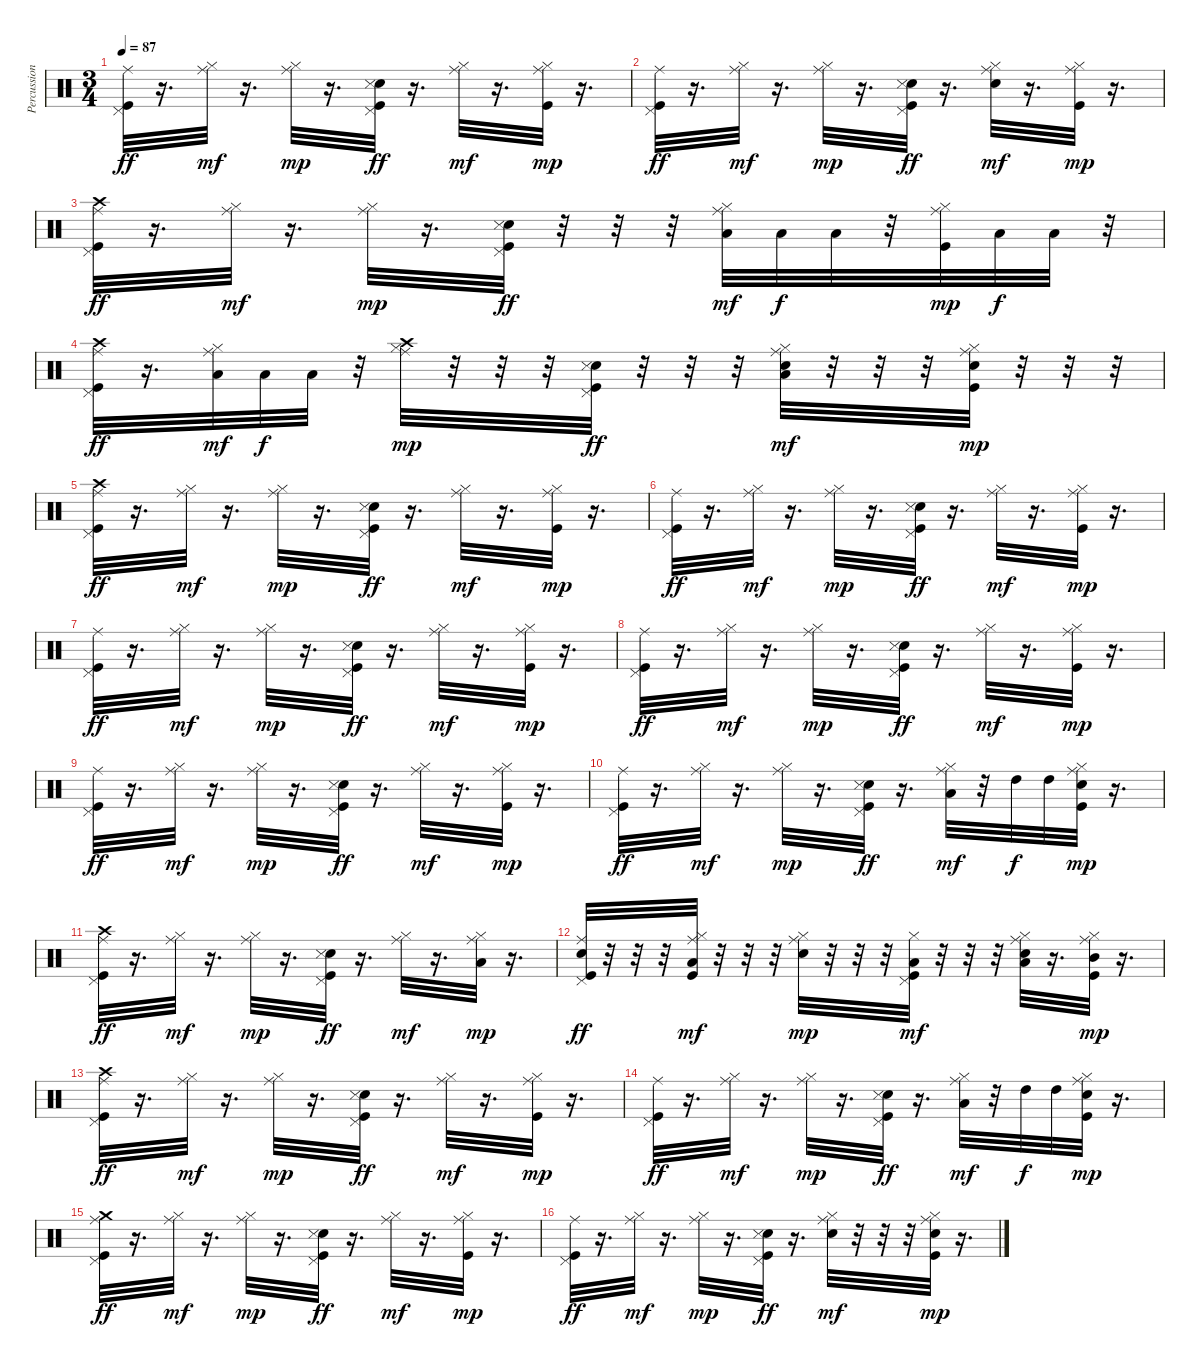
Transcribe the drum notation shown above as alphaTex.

\track ("Percussion" "Percussion") {instrument percussion}
\staff {score}
\articulation defaults
\ts (3 4)
\tempo 87
\clef neutral
\ks c
("Kick (hit)" "Ride (middle)" "Pedal Hi-Hat (hit)").32{dy ff} r.16{d} ("Hi-Hat (closed)" "Ride (middle)").32{dy mf} r.16{d} ("Hi-Hat (closed)" "Ride (middle)").32{dy mp} r.16{d} ("Kick (hit)" "Pedal Hi-Hat (hit)" "Electric Snare (hit)" "Snare (side stick) 3").32{dy ff} r.16{d} ("Hi-Hat (closed)" "Ride (middle)").32{dy mf} r.16{d} ("Hi-Hat (closed)" "Ride (middle)" "Kick (hit)").32{dy mp} r.16{d} |
("Kick (hit)" "Ride (middle)" "Pedal Hi-Hat (hit)").32{dy ff} r.16{d} ("Hi-Hat (closed)" "Ride (middle)").32{dy mf} r.16{d} ("Hi-Hat (closed)" "Ride (middle)").32{dy mp} r.16{d} ("Kick (hit)" "Pedal Hi-Hat (hit)" "Electric Snare (hit)" "Snare (side stick) 3").32{dy ff} r.16{d} ("Hi-Hat (closed)" "Ride (middle)" "Electric Snare (hit)").32{dy mf} r.16{d} ("Hi-Hat (closed)" "Ride (middle)" "Kick (hit)").32{dy mp} r.16{d} |
("Kick (hit)" "Ride (middle)" "Pedal Hi-Hat (hit)" "Crash high (hit)").32{dy ff} r.16{d} ("Hi-Hat (closed)" "Ride (middle)").32{dy mf} r.16{d} ("Hi-Hat (closed)" "Ride (middle)").32{dy mp} r.16{d} ("Kick (hit)" "Pedal Hi-Hat (hit)" "Electric Snare (hit)" "Snare (side stick) 3").32{dy ff} r.32 r.32 r.32 ("Hi-Hat (closed)" "Ride (middle)" "Low Tom (hit)").32{dy mf} "Low Tom (hit)".32{dy f} "Low Tom (hit)".32 r.32 ("Hi-Hat (closed)" "Ride (middle)" "Kick (hit)").32{dy mp} "Low Tom (hit)".32{dy f} "Low Tom (hit)".32 r.32 |
("Kick (hit)" "Ride (middle)" "Pedal Hi-Hat (hit)" "Crash high (hit)").32{dy ff} r.16{d} ("Hi-Hat (closed)" "Ride (middle)" "Low Tom (hit)").32{dy mf} "Low Tom (hit)".32{dy f} "Low Tom (hit)".32 r.32 ("Hi-Hat (closed)" "Ride (middle)" "Crash high (hit)").32{dy mp} r.32 r.32 r.32 ("Kick (hit)" "Pedal Hi-Hat (hit)" "Electric Snare (hit)" "Snare (side stick) 3").32{dy ff} r.32 r.32 r.32 ("Hi-Hat (closed)" "Ride (middle)" "Low Tom (hit)" "Electric Snare (hit)").32{dy mf} r.32 r.32 r.32 ("Hi-Hat (closed)" "Ride (middle)" "Electric Snare (hit)" "Kick (hit)").32{dy mp} r.32 r.32 r.32 |
("Kick (hit)" "Ride (middle)" "Pedal Hi-Hat (hit)" "Crash high (hit)").32{dy ff} r.16{d} ("Hi-Hat (closed)" "Ride (middle)").32{dy mf} r.16{d} ("Hi-Hat (closed)" "Ride (middle)").32{dy mp} r.16{d} ("Kick (hit)" "Pedal Hi-Hat (hit)" "Electric Snare (hit)" "Snare (side stick) 3").32{dy ff} r.16{d} ("Hi-Hat (closed)" "Ride (middle)").32{dy mf} r.16{d} ("Hi-Hat (closed)" "Ride (middle)" "Kick (hit)").32{dy mp} r.16{d} |
("Kick (hit)" "Ride (middle)" "Pedal Hi-Hat (hit)").32{dy ff} r.16{d} ("Hi-Hat (closed)" "Ride (middle)").32{dy mf} r.16{d} ("Hi-Hat (closed)" "Ride (middle)").32{dy mp} r.16{d} ("Kick (hit)" "Pedal Hi-Hat (hit)" "Electric Snare (hit)" "Snare (side stick) 3").32{dy ff} r.16{d} ("Hi-Hat (closed)" "Ride (middle)").32{dy mf} r.16{d} ("Hi-Hat (closed)" "Ride (middle)" "Kick (hit)").32{dy mp} r.16{d} |
("Kick (hit)" "Ride (middle)" "Pedal Hi-Hat (hit)").32{dy ff} r.16{d} ("Hi-Hat (closed)" "Ride (middle)").32{dy mf} r.16{d} ("Hi-Hat (closed)" "Ride (middle)").32{dy mp} r.16{d} ("Kick (hit)" "Pedal Hi-Hat (hit)" "Electric Snare (hit)" "Snare (side stick) 3").32{dy ff} r.16{d} ("Hi-Hat (closed)" "Ride (middle)").32{dy mf} r.16{d} ("Hi-Hat (closed)" "Ride (middle)" "Kick (hit)").32{dy mp} r.16{d} |
("Kick (hit)" "Ride (middle)" "Pedal Hi-Hat (hit)").32{dy ff} r.16{d} ("Hi-Hat (closed)" "Ride (middle)").32{dy mf} r.16{d} ("Hi-Hat (closed)" "Ride (middle)").32{dy mp} r.16{d} ("Kick (hit)" "Pedal Hi-Hat (hit)" "Electric Snare (hit)" "Snare (side stick) 3").32{dy ff} r.16{d} ("Hi-Hat (closed)" "Ride (middle)").32{dy mf} r.16{d} ("Hi-Hat (closed)" "Ride (middle)" "Kick (hit)").32{dy mp} r.16{d} |
("Kick (hit)" "Ride (middle)" "Pedal Hi-Hat (hit)").32{dy ff} r.16{d} ("Hi-Hat (closed)" "Ride (middle)").32{dy mf} r.16{d} ("Hi-Hat (closed)" "Ride (middle)").32{dy mp} r.16{d} ("Kick (hit)" "Pedal Hi-Hat (hit)" "Electric Snare (hit)" "Snare (side stick) 3").32{dy ff} r.16{d} ("Hi-Hat (closed)" "Ride (middle)").32{dy mf} r.16{d} ("Hi-Hat (closed)" "Ride (middle)" "Kick (hit)").32{dy mp} r.16{d} |
("Kick (hit)" "Ride (middle)" "Pedal Hi-Hat (hit)").32{dy ff} r.16{d} ("Hi-Hat (closed)" "Ride (middle)").32{dy mf} r.16{d} ("Hi-Hat (closed)" "Ride (middle)").32{dy mp} r.16{d} ("Kick (hit)" "Pedal Hi-Hat (hit)" "Electric Snare (hit)" "Snare (side stick) 3").32{dy ff} r.16{d} ("Hi-Hat (closed)" "Ride (middle)" "Low Tom (hit)").32{dy mf} r.32 "High Tom (hit)".32{dy f} "High Tom (hit)".32 ("Hi-Hat (closed)" "Ride (middle)" "Electric Snare (hit)" "Kick (hit)").32{dy mp} r.16{d} |
("Kick (hit)" "Ride (middle)" "Pedal Hi-Hat (hit)" "Crash high (hit)").32{dy ff} r.16{d} ("Hi-Hat (closed)" "Ride (middle)").32{dy mf} r.16{d} ("Hi-Hat (closed)" "Ride (middle)").32{dy mp} r.16{d} ("Kick (hit)" "Pedal Hi-Hat (hit)" "Electric Snare (hit)" "Snare (side stick) 3").32{dy ff} r.16{d} ("Hi-Hat (closed)" "Ride (middle)").32{dy mf} r.16{d} ("Hi-Hat (closed)" "Ride (middle)" "Low Tom (hit)").32{dy mp} r.16{d} |
("Kick (hit)" "Ride (middle)" "Pedal Hi-Hat (hit)" "Electric Snare (hit)").32{dy ff} r.32 r.32 r.32 ("Hi-Hat (closed)" "Ride (middle)" "Low Tom (hit)" "Kick (hit)").32{dy mf} r.32 r.32 r.32 ("Hi-Hat (closed)" "Ride (middle)" "Electric Snare (hit)").32{dy mp} r.32 r.32 r.32 ("Hi-Hat (closed)" "Pedal Hi-Hat (hit)" "Low Tom (hit)" "Kick (hit)").32{dy mf} r.32 r.32 r.32 ("Hi-Hat (closed)" "Ride (middle)" "Electric Snare (hit)" "Low Tom (hit)").32 r.16{d} ("Hi-Hat (closed)" "Ride (middle)" "Mid Tom (hit)" "Kick (hit)").32{dy mp} r.16{d} |
("Kick (hit)" "Ride (middle)" "Pedal Hi-Hat (hit)" "Crash high (hit)").32{dy ff} r.16{d} ("Hi-Hat (closed)" "Ride (middle)").32{dy mf} r.16{d} ("Hi-Hat (closed)" "Ride (middle)").32{dy mp} r.16{d} ("Kick (hit)" "Pedal Hi-Hat (hit)" "Electric Snare (hit)" "Snare (side stick) 3").32{dy ff} r.16{d} ("Hi-Hat (closed)" "Ride (middle)").32{dy mf} r.16{d} ("Hi-Hat (closed)" "Ride (middle)" "Kick (hit)").32{dy mp} r.16{d} |
("Kick (hit)" "Ride (middle)" "Pedal Hi-Hat (hit)").32{dy ff} r.16{d} ("Hi-Hat (closed)" "Ride (middle)").32{dy mf} r.16{d} ("Hi-Hat (closed)" "Ride (middle)").32{dy mp} r.16{d} ("Kick (hit)" "Pedal Hi-Hat (hit)" "Electric Snare (hit)" "Snare (side stick) 3").32{dy ff} r.16{d} ("Hi-Hat (closed)" "Ride (middle)" "Low Tom (hit)").32{dy mf} r.32 "High Tom (hit)".32{dy f} "High Tom (hit)".32 ("Hi-Hat (closed)" "Ride (middle)" "Electric Snare (hit)" "Kick (hit)").32{dy mp} r.16{d} |
("Kick (hit)" "Ride (middle)" "Pedal Hi-Hat (hit)" "Crash medium (hit)").32{dy ff} r.16{d} ("Hi-Hat (closed)" "Ride (middle)").32{dy mf} r.16{d} ("Hi-Hat (closed)" "Ride (middle)").32{dy mp} r.16{d} ("Kick (hit)" "Pedal Hi-Hat (hit)" "Electric Snare (hit)" "Snare (side stick) 3").32{dy ff} r.16{d} ("Hi-Hat (closed)" "Ride (middle)").32{dy mf} r.16{d} ("Hi-Hat (closed)" "Ride (middle)" "Kick (hit)").32{dy mp} r.16{d} |
("Kick (hit)" "Ride (middle)" "Pedal Hi-Hat (hit)").32{dy ff} r.16{d} ("Hi-Hat (closed)" "Ride (middle)").32{dy mf} r.16{d} ("Hi-Hat (closed)" "Ride (middle)").32{dy mp} r.16{d} ("Kick (hit)" "Pedal Hi-Hat (hit)" "Electric Snare (hit)" "Snare (side stick) 3").32{dy ff} r.16{d} ("Hi-Hat (closed)" "Ride (middle)" "Electric Snare (hit)").32{dy mf} r.32 r.32 r.32 ("Hi-Hat (closed)" "Ride (middle)" "Electric Snare (hit)" "Kick (hit)").32{dy mp} r.16{d}
